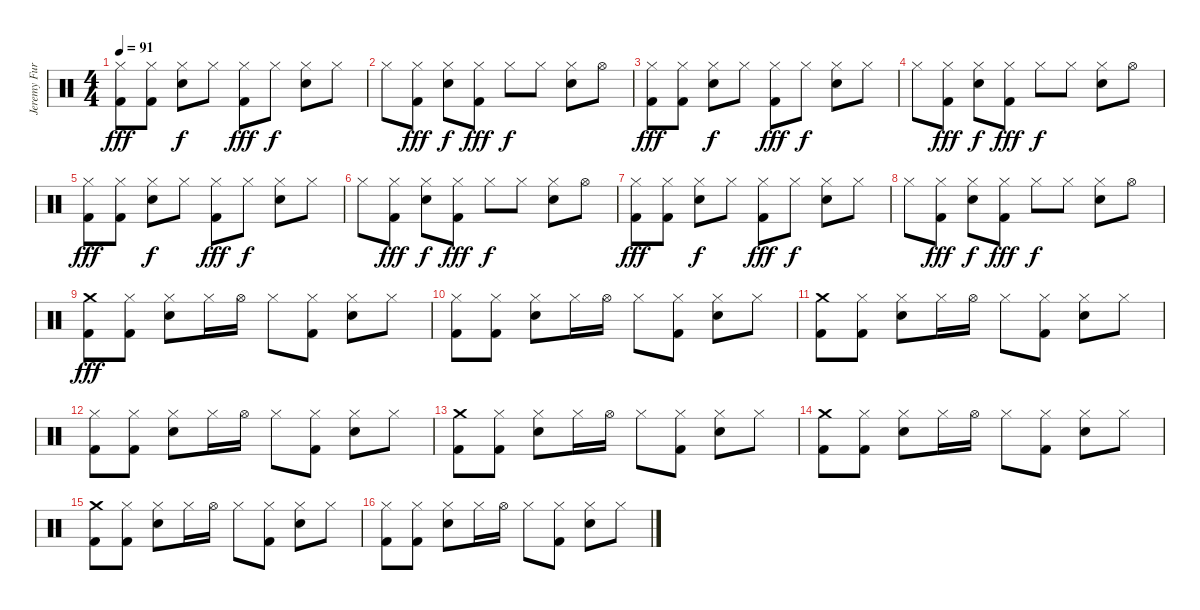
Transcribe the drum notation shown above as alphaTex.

\track ("Jeremy Furstenfeld - drums" "Jeremy Fur") {instrument percussion}
\staff {score}
\articulation defaults
\ts (4 4)
\tempo 91
\clef neutral
\ks c
("Hi-Hat (closed)" "Kick (hit) 2").8{dy fff} ("Hi-Hat (closed)" "Kick (hit) 2").8 ("Hi-Hat (closed)" "Electric Snare (hit)").8{dy f} "Hi-Hat (closed)".8 ("Hi-Hat (closed)" "Kick (hit) 2").8{dy fff} "Hi-Hat (closed)".8{dy f} ("Hi-Hat (closed)" "Electric Snare (hit)").8 "Hi-Hat (closed)".8 |
"Hi-Hat (closed)".8 ("Hi-Hat (closed)" "Kick (hit) 2").8{dy fff} ("Hi-Hat (closed)" "Electric Snare (hit)").8{dy f} ("Hi-Hat (closed)" "Kick (hit) 2").8{dy fff} "Hi-Hat (closed)".8{dy f} "Hi-Hat (closed)".8 ("Hi-Hat (closed)" "Electric Snare (hit)").8 "Hi-Hat (open)".8 |
("Hi-Hat (closed)" "Kick (hit) 2").8{dy fff} ("Hi-Hat (closed)" "Kick (hit) 2").8 ("Hi-Hat (closed)" "Electric Snare (hit)").8{dy f} "Hi-Hat (closed)".8 ("Hi-Hat (closed)" "Kick (hit) 2").8{dy fff} "Hi-Hat (closed)".8{dy f} ("Hi-Hat (closed)" "Electric Snare (hit)").8 "Hi-Hat (closed)".8 |
"Hi-Hat (closed)".8 ("Hi-Hat (closed)" "Kick (hit) 2").8{dy fff} ("Hi-Hat (closed)" "Electric Snare (hit)").8{dy f} ("Hi-Hat (closed)" "Kick (hit) 2").8{dy fff} "Hi-Hat (closed)".8{dy f} "Hi-Hat (closed)".8 ("Hi-Hat (closed)" "Electric Snare (hit)").8 "Hi-Hat (open)".8 |
("Hi-Hat (closed)" "Kick (hit) 2").8{dy fff} ("Hi-Hat (closed)" "Kick (hit) 2").8 ("Hi-Hat (closed)" "Electric Snare (hit)").8{dy f} "Hi-Hat (closed)".8 ("Hi-Hat (closed)" "Kick (hit) 2").8{dy fff} "Hi-Hat (closed)".8{dy f} ("Hi-Hat (closed)" "Electric Snare (hit)").8 "Hi-Hat (closed)".8 |
"Hi-Hat (closed)".8 ("Hi-Hat (closed)" "Kick (hit) 2").8{dy fff} ("Hi-Hat (closed)" "Electric Snare (hit)").8{dy f} ("Hi-Hat (closed)" "Kick (hit) 2").8{dy fff} "Hi-Hat (closed)".8{dy f} "Hi-Hat (closed)".8 ("Hi-Hat (closed)" "Electric Snare (hit)").8 "Hi-Hat (open)".8 |
("Hi-Hat (closed)" "Kick (hit) 2").8{dy fff} ("Hi-Hat (closed)" "Kick (hit) 2").8 ("Hi-Hat (closed)" "Electric Snare (hit)").8{dy f} "Hi-Hat (closed)".8 ("Hi-Hat (closed)" "Kick (hit) 2").8{dy fff} "Hi-Hat (closed)".8{dy f} ("Hi-Hat (closed)" "Electric Snare (hit)").8 "Hi-Hat (closed)".8 |
"Hi-Hat (closed)".8 ("Hi-Hat (closed)" "Kick (hit) 2").8{dy fff} ("Hi-Hat (closed)" "Electric Snare (hit)").8{dy f} ("Hi-Hat (closed)" "Kick (hit) 2").8{dy fff} "Hi-Hat (closed)".8{dy f} "Hi-Hat (closed)".8 ("Hi-Hat (closed)" "Electric Snare (hit)").8 "Hi-Hat (open)".8 |
("Crash medium (hit)" "Kick (hit) 2").8{dy fff} ("Hi-Hat (closed)" "Kick (hit) 2").8 ("Hi-Hat (closed)" "Electric Snare (hit)").8 "Hi-Hat (closed)".16 "Hi-Hat (open)".16 "Hi-Hat (closed)".8 ("Hi-Hat (closed)" "Kick (hit) 2").8 ("Hi-Hat (closed)" "Electric Snare (hit)").8 "Hi-Hat (closed)".8 |
("Hi-Hat (closed)" "Kick (hit) 2").8 ("Hi-Hat (closed)" "Kick (hit) 2").8 ("Hi-Hat (closed)" "Electric Snare (hit)").8 "Hi-Hat (closed)".16 "Hi-Hat (open)".16 "Hi-Hat (closed)".8 ("Hi-Hat (closed)" "Kick (hit) 2").8 ("Hi-Hat (closed)" "Electric Snare (hit)").8 "Hi-Hat (closed)".8 |
("Crash medium (hit)" "Kick (hit) 2").8 ("Hi-Hat (closed)" "Kick (hit) 2").8 ("Hi-Hat (closed)" "Electric Snare (hit)").8 "Hi-Hat (closed)".16 "Hi-Hat (open)".16 "Hi-Hat (closed)".8 ("Hi-Hat (closed)" "Kick (hit) 2").8 ("Hi-Hat (closed)" "Electric Snare (hit)").8 "Hi-Hat (closed)".8 |
("Hi-Hat (closed)" "Kick (hit) 2").8 ("Hi-Hat (closed)" "Kick (hit) 2").8 ("Hi-Hat (closed)" "Electric Snare (hit)").8 "Hi-Hat (closed)".16 "Hi-Hat (open)".16 "Hi-Hat (closed)".8 ("Hi-Hat (closed)" "Kick (hit) 2").8 ("Hi-Hat (closed)" "Electric Snare (hit)").8 "Hi-Hat (closed)".8 |
("Crash medium (hit)" "Kick (hit) 2").8 ("Hi-Hat (closed)" "Kick (hit) 2").8 ("Hi-Hat (closed)" "Electric Snare (hit)").8 "Hi-Hat (closed)".16 "Hi-Hat (open)".16 "Hi-Hat (closed)".8 ("Hi-Hat (closed)" "Kick (hit) 2").8 ("Hi-Hat (closed)" "Electric Snare (hit)").8 "Hi-Hat (closed)".8 |
("Crash medium (hit)" "Kick (hit) 2").8 ("Hi-Hat (closed)" "Kick (hit) 2").8 ("Hi-Hat (closed)" "Electric Snare (hit)").8 "Hi-Hat (closed)".16 "Hi-Hat (open)".16 "Hi-Hat (closed)".8 ("Hi-Hat (closed)" "Kick (hit) 2").8 ("Hi-Hat (closed)" "Electric Snare (hit)").8 "Hi-Hat (closed)".8 |
("Crash medium (hit)" "Kick (hit) 2").8 ("Hi-Hat (closed)" "Kick (hit) 2").8 ("Hi-Hat (closed)" "Electric Snare (hit)").8 "Hi-Hat (closed)".16 "Hi-Hat (open)".16 "Hi-Hat (closed)".8 ("Hi-Hat (closed)" "Kick (hit) 2").8 ("Hi-Hat (closed)" "Electric Snare (hit)").8 "Hi-Hat (closed)".8 |
("Hi-Hat (closed)" "Kick (hit) 2").8 ("Hi-Hat (closed)" "Kick (hit) 2").8 ("Hi-Hat (closed)" "Electric Snare (hit)").8 "Hi-Hat (closed)".16 "Hi-Hat (open)".16 "Hi-Hat (closed)".8 ("Hi-Hat (closed)" "Kick (hit) 2").8 ("Hi-Hat (closed)" "Electric Snare (hit)").8 "Hi-Hat (closed)".8
